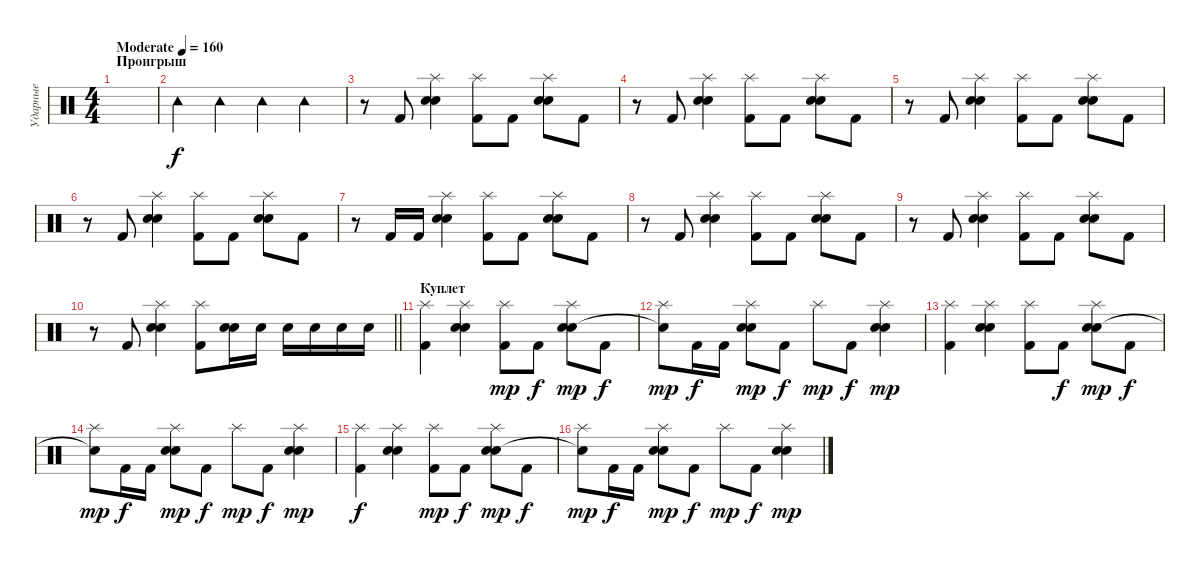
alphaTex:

\track ("Ударные" "Ударные") {instrument percussion}
\staff {score}
\articulation defaults
\ts (4 4)
\section ("" "Проигрыш")
\tempo (160 "Moderate")
\clef neutral
\ks c
|
"Tambourine (hit)".4 "Tambourine (hit)".4 "Tambourine (hit)".4 "Tambourine (hit)".4 |
r.8 "Kick (hit) 2".8 ("Splash (hit)" "Electric Snare (hit)" "Snare (hit) 2").4 ("Splash (hit)" "Kick (hit) 2").8 "Kick (hit) 2".8 ("Splash (hit)" "Electric Snare (hit)" "Snare (hit) 2").8 "Kick (hit) 2".8 |
r.8 "Kick (hit) 2".8 ("Splash (hit)" "Electric Snare (hit)" "Snare (hit) 2").4 ("Splash (hit)" "Kick (hit) 2").8 "Kick (hit) 2".8 ("Splash (hit)" "Electric Snare (hit)" "Snare (hit) 2").8 "Kick (hit) 2".8 |
r.8 "Kick (hit) 2".8 ("Splash (hit)" "Electric Snare (hit)" "Snare (hit) 2").4 ("Splash (hit)" "Kick (hit) 2").8 "Kick (hit) 2".8 ("Splash (hit)" "Electric Snare (hit)" "Snare (hit) 2").8 "Kick (hit) 2".8 |
r.8 "Kick (hit) 2".8 ("Splash (hit)" "Electric Snare (hit)" "Snare (hit) 2").4 ("Splash (hit)" "Kick (hit) 2").8 "Kick (hit) 2".8 ("Splash (hit)" "Electric Snare (hit)" "Snare (hit) 2").8 "Kick (hit) 2".8 |
r.8 "Kick (hit) 2".16 "Kick (hit) 2".16 ("Splash (hit)" "Electric Snare (hit)" "Snare (hit) 2").4 ("Splash (hit)" "Kick (hit) 2").8 "Kick (hit) 2".8 ("Splash (hit)" "Electric Snare (hit)" "Snare (hit) 2").8 "Kick (hit) 2".8 |
r.8 "Kick (hit) 2".8 ("Splash (hit)" "Electric Snare (hit)" "Snare (hit) 2").4 ("Splash (hit)" "Kick (hit) 2").8 "Kick (hit) 2".8 ("Splash (hit)" "Electric Snare (hit)" "Snare (hit) 2").8 "Kick (hit) 2".8 |
r.8 "Kick (hit) 2".8 ("Splash (hit)" "Electric Snare (hit)" "Snare (hit) 2").4 ("Splash (hit)" "Kick (hit) 2").8 "Kick (hit) 2".8 ("Splash (hit)" "Electric Snare (hit)" "Snare (hit) 2").8 "Kick (hit) 2".8 |
\barLineRight lightlight
r.8 "Kick (hit) 2".8 ("Splash (hit)" "Electric Snare (hit)" "Snare (hit) 2").4 ("Splash (hit)" "Kick (hit) 2").8 ("Electric Snare (hit)" "Snare (hit) 2").16 "Electric Snare (hit)".16 "Electric Snare (hit)".16 "Electric Snare (hit)".16 "Electric Snare (hit)".16 "Electric Snare (hit)".16 |
\section ("" "Куплет")
("Splash (hit)" "Kick (hit) 2").4 ("Splash (hit)" "Electric Snare (hit)" "Snare (hit) 2").4 ("Splash (hit)" "Kick (hit) 2").8{dy mp} "Kick (hit) 2".8{dy f} ("Splash (hit)" "Electric Snare (hit)" "Snare (hit) 2").8{dy mp} "Kick (hit) 2".8{dy f} |
("Splash (hit)" "Snare (hit)"{t}).8{dy mp} "Kick (hit) 2".16{dy f} "Kick (hit) 2".16 ("Splash (hit)" "Electric Snare (hit)" "Snare (hit) 2").8{dy mp} "Kick (hit) 2".8{dy f} "Splash (hit)".8{dy mp} "Kick (hit) 2".8{dy f} ("Splash (hit)" "Electric Snare (hit)" "Snare (hit) 2").4{dy mp} |
("Splash (hit)" "Kick (hit) 2").4 ("Splash (hit)" "Electric Snare (hit)" "Snare (hit) 2").4 ("Splash (hit)" "Kick (hit) 2").8 "Kick (hit) 2".8{dy f} ("Splash (hit)" "Electric Snare (hit)" "Snare (hit) 2").8{dy mp} "Kick (hit) 2".8{dy f} |
("Splash (hit)" "Snare (hit)"{t}).8{dy mp} "Kick (hit) 2".16{dy f} "Kick (hit) 2".16 ("Splash (hit)" "Electric Snare (hit)" "Snare (hit) 2").8{dy mp} "Kick (hit) 2".8{dy f} "Splash (hit)".8{dy mp} "Kick (hit) 2".8{dy f} ("Splash (hit)" "Electric Snare (hit)" "Snare (hit) 2").4{dy mp} |
("Splash (hit)" "Kick (hit) 2").4{dy f} ("Splash (hit)" "Electric Snare (hit)" "Snare (hit) 2").4 ("Splash (hit)" "Kick (hit) 2").8{dy mp} "Kick (hit) 2".8{dy f} ("Splash (hit)" "Electric Snare (hit)" "Snare (hit) 2").8{dy mp} "Kick (hit) 2".8{dy f} |
("Splash (hit)" "Snare (hit)"{t}).8{dy mp} "Kick (hit) 2".16{dy f} "Kick (hit) 2".16 ("Splash (hit)" "Electric Snare (hit)" "Snare (hit) 2").8{dy mp} "Kick (hit) 2".8{dy f} "Splash (hit)".8{dy mp} "Kick (hit) 2".8{dy f} ("Splash (hit)" "Electric Snare (hit)" "Snare (hit) 2").4{dy mp}
